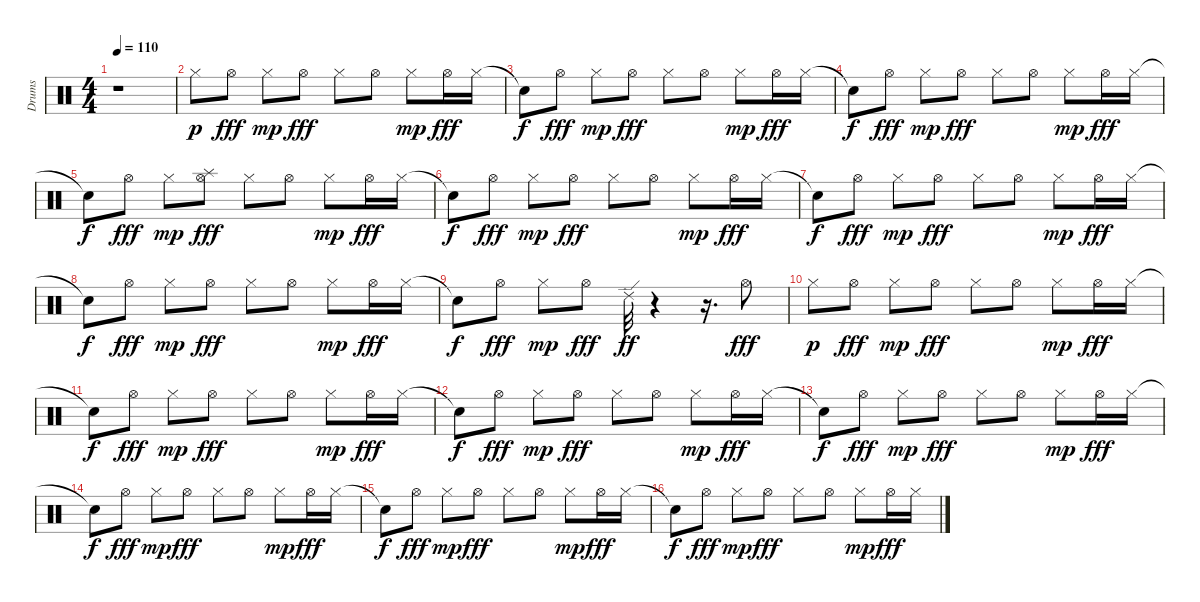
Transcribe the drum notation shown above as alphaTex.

\track ("Drums" "Drums") {instrument percussion}
\staff {score}
\articulation defaults
\ts (4 4)
\tempo 110
\clef neutral
\ks c
r.1{dy p} |
"Hi-Hat (closed)".8 "Hi-Hat (open)".8{dy fff} "Hi-Hat (closed)".8{dy mp} "Hi-Hat (open)".8{dy fff} "Hi-Hat (closed)".8 "Hi-Hat (open)".8 "Hi-Hat (closed)".8{dy mp} "Hi-Hat (open)".16{dy fff} "Hi-Hat (closed)".16 |
"Snare (hit)"{t}.8{dy f} "Hi-Hat (open)".8{dy fff} "Hi-Hat (closed)".8{dy mp} "Hi-Hat (open)".8{dy fff} "Hi-Hat (closed)".8 "Hi-Hat (open)".8 "Hi-Hat (closed)".8{dy mp} "Hi-Hat (open)".16{dy fff} "Hi-Hat (closed)".16 |
"Snare (hit)"{t}.8{dy f} "Hi-Hat (open)".8{dy fff} "Hi-Hat (closed)".8{dy mp} "Hi-Hat (open)".8{dy fff} "Hi-Hat (closed)".8 "Hi-Hat (open)".8 "Hi-Hat (closed)".8{dy mp} "Hi-Hat (open)".16{dy fff} "Hi-Hat (closed)".16 |
"Snare (hit)"{t}.8{dy f} "Hi-Hat (open)".8{dy fff} "Hi-Hat (closed)".8{dy mp} ("Hi-Hat (open)" "Splash (hit)").8{dy fff} "Hi-Hat (closed)".8 "Hi-Hat (open)".8 "Hi-Hat (closed)".8{dy mp} "Hi-Hat (open)".16{dy fff} "Hi-Hat (closed)".16 |
"Snare (hit)"{t}.8{dy f} "Hi-Hat (open)".8{dy fff} "Hi-Hat (closed)".8{dy mp} "Hi-Hat (open)".8{dy fff} "Hi-Hat (closed)".8 "Hi-Hat (open)".8 "Hi-Hat (closed)".8{dy mp} "Hi-Hat (open)".16{dy fff} "Hi-Hat (closed)".16 |
"Snare (hit)"{t}.8{dy f} "Hi-Hat (open)".8{dy fff} "Hi-Hat (closed)".8{dy mp} "Hi-Hat (open)".8{dy fff} "Hi-Hat (closed)".8 "Hi-Hat (open)".8 "Hi-Hat (closed)".8{dy mp} "Hi-Hat (open)".16{dy fff} "Hi-Hat (closed)".16 |
"Snare (hit)"{t}.8{dy f} "Hi-Hat (open)".8{dy fff} "Hi-Hat (closed)".8{dy mp} "Hi-Hat (open)".8{dy fff} "Hi-Hat (closed)".8 "Hi-Hat (open)".8 "Hi-Hat (closed)".8{dy mp} "Hi-Hat (open)".16{dy fff} "Hi-Hat (closed)".16 |
"Snare (hit)"{t}.8{dy f} "Hi-Hat (open)".8{dy fff} "Hi-Hat (closed)".8{dy mp} "Hi-Hat (open)".8{dy fff} "Ride (edge) 2".32{dy ff} r.4 r.16{d} "Hi-Hat (open)".8{dy fff} |
"Hi-Hat (closed)".8{dy p} "Hi-Hat (open)".8{dy fff} "Hi-Hat (closed)".8{dy mp} "Hi-Hat (open)".8{dy fff} "Hi-Hat (closed)".8 "Hi-Hat (open)".8 "Hi-Hat (closed)".8{dy mp} "Hi-Hat (open)".16{dy fff} "Hi-Hat (closed)".16 |
"Snare (hit)"{t}.8{dy f} "Hi-Hat (open)".8{dy fff} "Hi-Hat (closed)".8{dy mp} "Hi-Hat (open)".8{dy fff} "Hi-Hat (closed)".8 "Hi-Hat (open)".8 "Hi-Hat (closed)".8{dy mp} "Hi-Hat (open)".16{dy fff} "Hi-Hat (closed)".16 |
"Snare (hit)"{t}.8{dy f} "Hi-Hat (open)".8{dy fff} "Hi-Hat (closed)".8{dy mp} "Hi-Hat (open)".8{dy fff} "Hi-Hat (closed)".8 "Hi-Hat (open)".8 "Hi-Hat (closed)".8{dy mp} "Hi-Hat (open)".16{dy fff} "Hi-Hat (closed)".16 |
"Snare (hit)"{t}.8{dy f} "Hi-Hat (open)".8{dy fff} "Hi-Hat (closed)".8{dy mp} "Hi-Hat (open)".8{dy fff} "Hi-Hat (closed)".8 "Hi-Hat (open)".8 "Hi-Hat (closed)".8{dy mp} "Hi-Hat (open)".16{dy fff} "Hi-Hat (closed)".16 |
"Snare (hit)"{t}.8{dy f} "Hi-Hat (open)".8{dy fff} "Hi-Hat (closed)".8{dy mp} "Hi-Hat (open)".8{dy fff} "Hi-Hat (closed)".8 "Hi-Hat (open)".8 "Hi-Hat (closed)".8{dy mp} "Hi-Hat (open)".16{dy fff} "Hi-Hat (closed)".16 |
"Snare (hit)"{t}.8{dy f} "Hi-Hat (open)".8{dy fff} "Hi-Hat (closed)".8{dy mp} "Hi-Hat (open)".8{dy fff} "Hi-Hat (closed)".8 "Hi-Hat (open)".8 "Hi-Hat (closed)".8{dy mp} "Hi-Hat (open)".16{dy fff} "Hi-Hat (closed)".16 |
"Snare (hit)"{t}.8{dy f} "Hi-Hat (open)".8{dy fff} "Hi-Hat (closed)".8{dy mp} "Hi-Hat (open)".8{dy fff} "Hi-Hat (closed)".8 "Hi-Hat (open)".8 "Hi-Hat (closed)".8{dy mp} "Hi-Hat (open)".16{dy fff} "Hi-Hat (closed)".16
